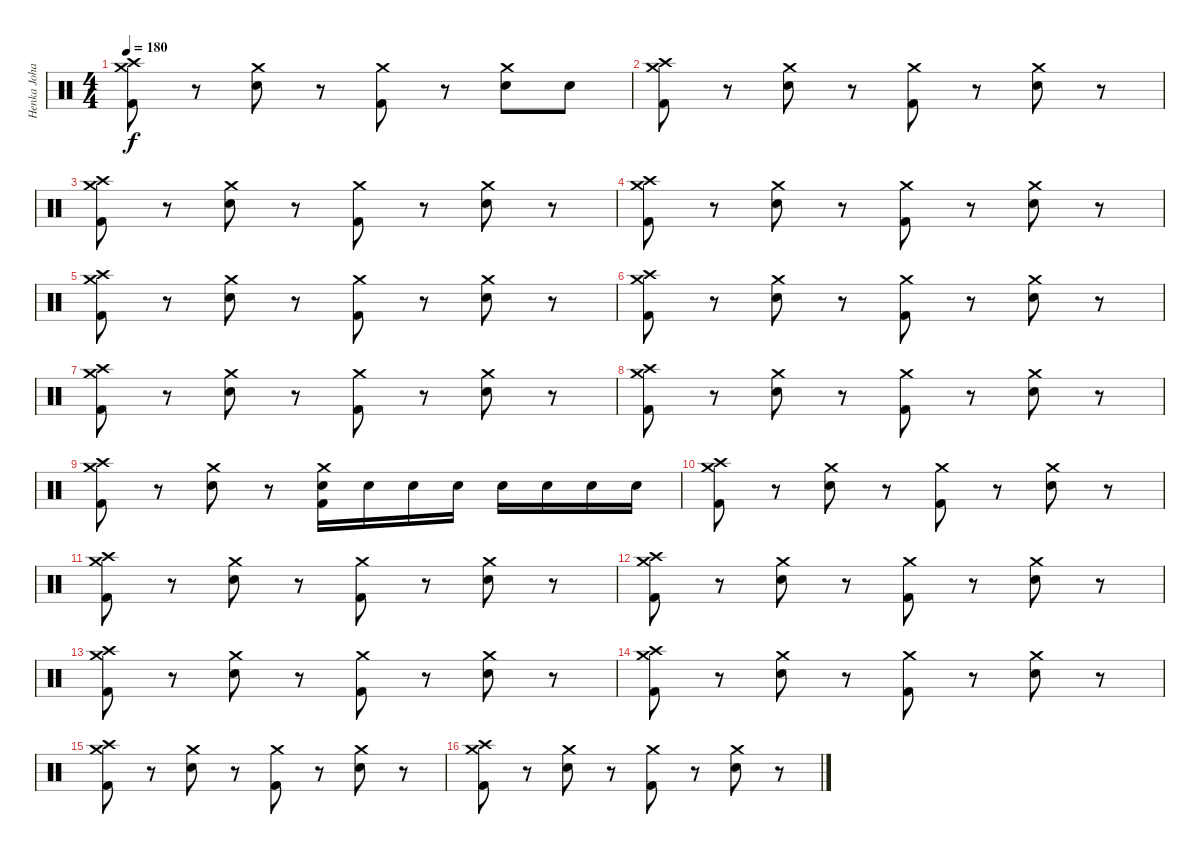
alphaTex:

\track ("Henka Johansson" "Henka Joha") {instrument percussion}
\staff {score}
\articulation defaults
\ts (4 4)
\tempo 180
\clef neutral
\ks c
("Crash medium (hit)" "Crash high (hit)" "Kick (hit) 2").8{dy f} r.8 ("Crash medium (hit)" "Snare (hit) 2").8 r.8 ("Crash medium (hit)" "Kick (hit) 2").8 r.8 ("Crash medium (hit)" "Snare (hit) 2").8 "Snare (hit) 2".8 |
("Crash medium (hit)" "Crash high (hit)" "Kick (hit) 2").8 r.8 ("Crash medium (hit)" "Snare (hit) 2").8 r.8 ("Crash medium (hit)" "Kick (hit) 2").8 r.8 ("Crash medium (hit)" "Snare (hit) 2").8 r.8 |
("Crash medium (hit)" "Crash high (hit)" "Kick (hit) 2").8 r.8 ("Crash medium (hit)" "Snare (hit) 2").8 r.8 ("Crash medium (hit)" "Kick (hit) 2").8 r.8 ("Crash medium (hit)" "Snare (hit) 2").8 r.8 |
("Crash medium (hit)" "Crash high (hit)" "Kick (hit) 2").8 r.8 ("Crash medium (hit)" "Snare (hit) 2").8 r.8 ("Crash medium (hit)" "Kick (hit) 2").8 r.8 ("Crash medium (hit)" "Snare (hit) 2").8 r.8 |
("Crash medium (hit)" "Crash high (hit)" "Kick (hit) 2").8 r.8 ("Crash medium (hit)" "Snare (hit) 2").8 r.8 ("Crash medium (hit)" "Kick (hit) 2").8 r.8 ("Crash medium (hit)" "Snare (hit) 2").8 r.8 |
("Crash medium (hit)" "Crash high (hit)" "Kick (hit) 2").8 r.8 ("Crash medium (hit)" "Snare (hit) 2").8 r.8 ("Crash medium (hit)" "Kick (hit) 2").8 r.8 ("Crash medium (hit)" "Snare (hit) 2").8 r.8 |
("Crash medium (hit)" "Crash high (hit)" "Kick (hit) 2").8 r.8 ("Crash medium (hit)" "Snare (hit) 2").8 r.8 ("Crash medium (hit)" "Kick (hit) 2").8 r.8 ("Crash medium (hit)" "Snare (hit) 2").8 r.8 |
("Crash medium (hit)" "Crash high (hit)" "Kick (hit) 2").8 r.8 ("Crash medium (hit)" "Snare (hit) 2").8 r.8 ("Crash medium (hit)" "Kick (hit) 2").8 r.8 ("Crash medium (hit)" "Snare (hit) 2").8 r.8 |
("Crash medium (hit)" "Crash high (hit)" "Kick (hit) 2").8 r.8 ("Crash medium (hit)" "Snare (hit) 2").8 r.8 ("Crash medium (hit)" "Snare (hit) 2" "Kick (hit) 2").16 "Snare (hit) 2".16 "Snare (hit) 2".16 "Snare (hit) 2".16 "Snare (hit) 2".16 "Snare (hit) 2".16 "Snare (hit) 2".16 "Snare (hit) 2".16 |
("Crash medium (hit)" "Crash high (hit)" "Kick (hit) 2").8 r.8 ("Crash medium (hit)" "Snare (hit) 2").8 r.8 ("Crash medium (hit)" "Kick (hit) 2").8 r.8 ("Crash medium (hit)" "Snare (hit) 2").8 r.8 |
("Crash medium (hit)" "Crash high (hit)" "Kick (hit) 2").8 r.8 ("Crash medium (hit)" "Snare (hit) 2").8 r.8 ("Crash medium (hit)" "Kick (hit) 2").8 r.8 ("Crash medium (hit)" "Snare (hit) 2").8 r.8 |
("Crash medium (hit)" "Crash high (hit)" "Kick (hit) 2").8 r.8 ("Crash medium (hit)" "Snare (hit) 2").8 r.8 ("Crash medium (hit)" "Kick (hit) 2").8 r.8 ("Crash medium (hit)" "Snare (hit) 2").8 r.8 |
("Crash medium (hit)" "Crash high (hit)" "Kick (hit) 2").8 r.8 ("Crash medium (hit)" "Snare (hit) 2").8 r.8 ("Crash medium (hit)" "Kick (hit) 2").8 r.8 ("Crash medium (hit)" "Snare (hit) 2").8 r.8 |
("Crash medium (hit)" "Crash high (hit)" "Kick (hit) 2").8 r.8 ("Crash medium (hit)" "Snare (hit) 2").8 r.8 ("Crash medium (hit)" "Kick (hit) 2").8 r.8 ("Crash medium (hit)" "Snare (hit) 2").8 r.8 |
("Crash medium (hit)" "Crash high (hit)" "Kick (hit) 2").8 r.8 ("Crash medium (hit)" "Snare (hit) 2").8 r.8 ("Crash medium (hit)" "Kick (hit) 2").8 r.8 ("Crash medium (hit)" "Snare (hit) 2").8 r.8 |
("Crash medium (hit)" "Crash high (hit)" "Kick (hit) 2").8 r.8 ("Crash medium (hit)" "Snare (hit) 2").8 r.8 ("Crash medium (hit)" "Kick (hit) 2").8 r.8 ("Crash medium (hit)" "Snare (hit) 2").8 r.8
